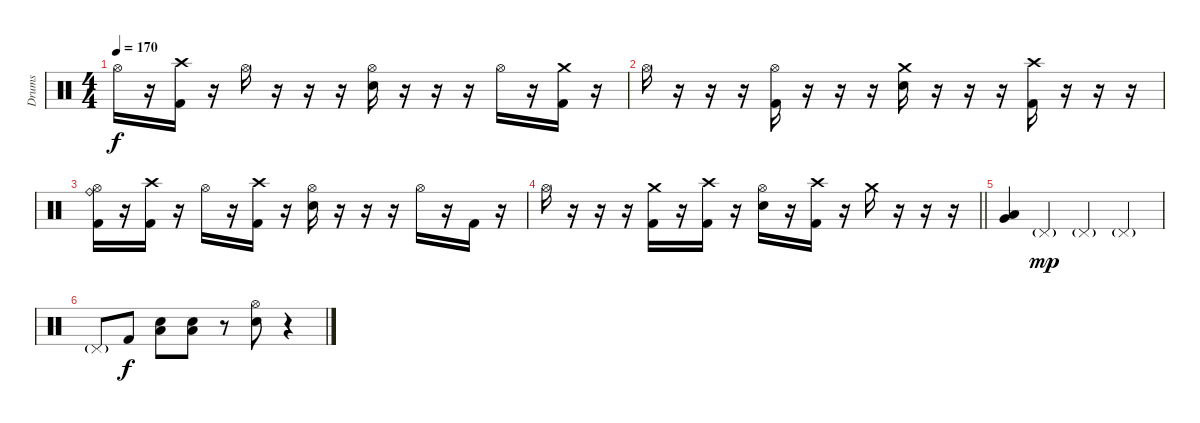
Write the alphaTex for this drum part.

\track ("Drums" "Drums") {instrument percussion}
\staff {score}
\articulation defaults
\ts (4 4)
\tempo 170
\clef neutral
\ks c "Hi-Hat (open)".16{dy f}
r.16 ("Crash high (hit)" "Kick (hit) 2").16 r.16 "Hi-Hat (open)".16 r.16 r.16 r.16 ("Hi-Hat (open)" "Electric Snare (hit)").16 r.16 r.16 r.16 "Hi-Hat (open)".16 r.16 ("Crash medium (hit)" "Kick (hit) 2").16 r.16 |
"Hi-Hat (open)".16 r.16 r.16 r.16 ("Hi-Hat (open)" "Kick (hit) 2").16 r.16 r.16 r.16 ("Crash medium (hit)" "Electric Snare (hit)").16 r.16 r.16 r.16 ("Crash high (hit)" "Kick (hit) 2").16 r.16 r.16 r.16 |
("Ride (bell)" "Hi-Hat (open)" "Kick (hit) 2").16 r.16 ("Crash high (hit)" "Kick (hit) 2").16 r.16 "Hi-Hat (open)".16 r.16 ("Crash high (hit)" "Kick (hit) 2").16 r.16 ("Hi-Hat (open)" "Electric Snare (hit)").16 r.16 r.16 r.16 "Hi-Hat (open)".16 r.16 "Kick (hit) 2".16 r.16 |
\barLineRight lightlight "Hi-Hat (open)".16
r.16 r.16 r.16 ("Crash medium (hit)" "Kick (hit) 2").16 r.16 ("Crash high (hit)" "Kick (hit) 2").16 r.16 ("Hi-Hat (open)" "Electric Snare (hit)").16 r.16 ("Crash high (hit)" "Kick (hit) 2").16 r.16 "Crash medium (hit)".16 r.16 r.16 r.16 |
\section ("" "")
("Very Low Tom (hit)" "Low Floor Tom (hit)").4 "Pedal Hi-Hat (hit)"{g}.4{dy mp} "Pedal Hi-Hat (hit)"{g}.4 "Pedal Hi-Hat (hit)"{g}.4 |
"Pedal Hi-Hat (hit)"{g}.8 "Kick (hit) 2".8{dy f} ("Low Tom (hit)" "Electric Snare (hit)").8 ("Low Tom (hit)" "Electric Snare (hit)").8 r.8 ("Hi-Hat (open)" "Electric Snare (hit)").8 r.4
